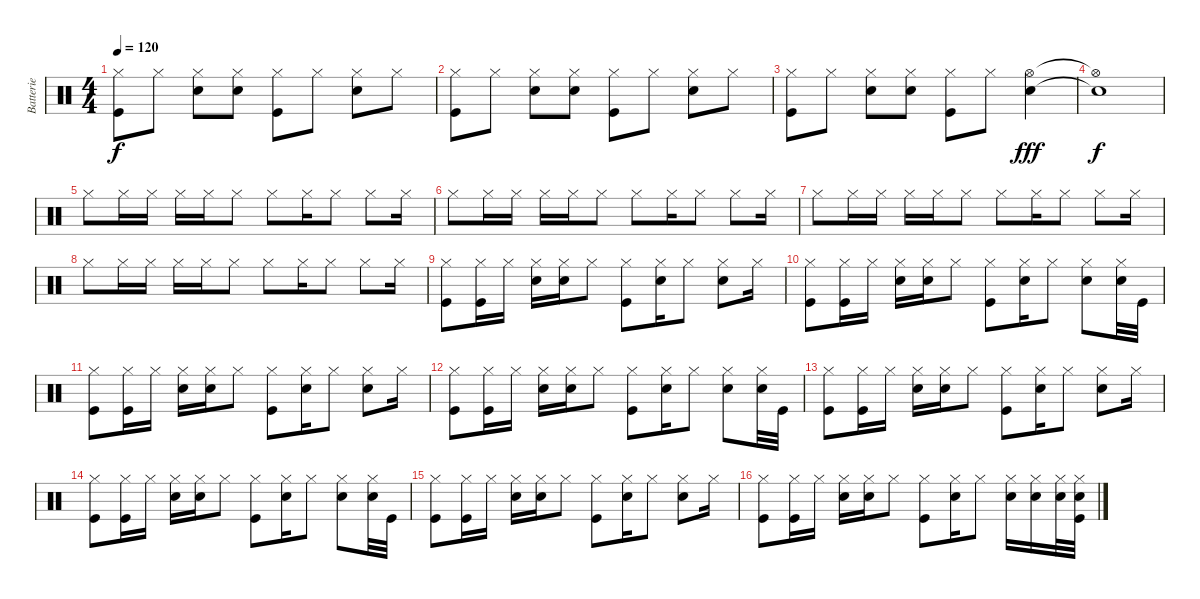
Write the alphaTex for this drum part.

\track ("Batterie" "Batterie") {instrument percussion}
\staff {score}
\articulation defaults
\ts (4 4)
\tempo 120
\clef neutral
\ks c
("Hi-Hat (closed)" "Kick (hit)").8{dy f} "Hi-Hat (closed)".8 ("Hi-Hat (closed)" "Snare (hit) 2").8 ("Hi-Hat (closed)" "Snare (hit) 2").8 ("Hi-Hat (closed)" "Kick (hit)").8 "Hi-Hat (closed)".8 ("Hi-Hat (closed)" "Snare (hit) 2").8 "Hi-Hat (closed)".8 |
("Hi-Hat (closed)" "Kick (hit)").8 "Hi-Hat (closed)".8 ("Hi-Hat (closed)" "Snare (hit) 2").8 ("Hi-Hat (closed)" "Snare (hit) 2").8 ("Hi-Hat (closed)" "Kick (hit)").8 "Hi-Hat (closed)".8 ("Hi-Hat (closed)" "Snare (hit) 2").8 "Hi-Hat (closed)".8 |
("Hi-Hat (closed)" "Kick (hit)").8 "Hi-Hat (closed)".8 ("Hi-Hat (closed)" "Snare (hit) 2").8 ("Hi-Hat (closed)" "Snare (hit) 2").8 ("Hi-Hat (closed)" "Kick (hit)").8 "Hi-Hat (closed)".8 ("Hi-Hat (open)" "Snare (hit) 2").4{dy fff} |
("Hi-Hat (open)"{t} "Snare (hit) 2"{t}).1{dy f} |
"Hi-Hat (closed)".8 "Hi-Hat (closed)".16 "Hi-Hat (closed)".16 "Hi-Hat (closed)".16 "Hi-Hat (closed)".16 "Hi-Hat (closed)".8 "Hi-Hat (closed)".8 "Hi-Hat (closed)".16 "Hi-Hat (closed)".8 "Hi-Hat (closed)".8 "Hi-Hat (closed)".16 |
"Hi-Hat (closed)".8 "Hi-Hat (closed)".16 "Hi-Hat (closed)".16 "Hi-Hat (closed)".16 "Hi-Hat (closed)".16 "Hi-Hat (closed)".8 "Hi-Hat (closed)".8 "Hi-Hat (closed)".16 "Hi-Hat (closed)".8 "Hi-Hat (closed)".8 "Hi-Hat (closed)".16 |
"Hi-Hat (closed)".8 "Hi-Hat (closed)".16 "Hi-Hat (closed)".16 "Hi-Hat (closed)".16 "Hi-Hat (closed)".16 "Hi-Hat (closed)".8 "Hi-Hat (closed)".8 "Hi-Hat (closed)".16 "Hi-Hat (closed)".8 "Hi-Hat (closed)".8 "Hi-Hat (closed)".16 |
"Hi-Hat (closed)".8 "Hi-Hat (closed)".16 "Hi-Hat (closed)".16 "Hi-Hat (closed)".16 "Hi-Hat (closed)".16 "Hi-Hat (closed)".8 "Hi-Hat (closed)".8 "Hi-Hat (closed)".16 "Hi-Hat (closed)".8 "Hi-Hat (closed)".8 "Hi-Hat (closed)".16 |
("Hi-Hat (closed)" "Kick (hit)").8 ("Hi-Hat (closed)" "Kick (hit)").16 "Hi-Hat (closed)".16 ("Hi-Hat (closed)" "Snare (hit) 2").16 ("Hi-Hat (closed)" "Snare (hit) 2").16 "Hi-Hat (closed)".8 ("Hi-Hat (closed)" "Kick (hit)").8 ("Hi-Hat (closed)" "Snare (hit) 2").16 "Hi-Hat (closed)".8 ("Hi-Hat (closed)" "Snare (hit) 2").8 "Hi-Hat (closed)".16 |
("Hi-Hat (closed)" "Kick (hit)").8 ("Hi-Hat (closed)" "Kick (hit)").16 "Hi-Hat (closed)".16 ("Hi-Hat (closed)" "Snare (hit) 2").16 ("Hi-Hat (closed)" "Snare (hit) 2").16 "Hi-Hat (closed)".8 ("Hi-Hat (closed)" "Kick (hit)").8 ("Hi-Hat (closed)" "Snare (hit) 2").16 "Hi-Hat (closed)".8 ("Hi-Hat (closed)" "Snare (hit) 2").8 ("Hi-Hat (closed)" "Snare (hit) 2").32 "Kick (hit)".32 |
("Hi-Hat (closed)" "Kick (hit)").8 ("Hi-Hat (closed)" "Kick (hit)").16 "Hi-Hat (closed)".16 ("Hi-Hat (closed)" "Snare (hit) 2").16 ("Hi-Hat (closed)" "Snare (hit) 2").16 "Hi-Hat (closed)".8 ("Hi-Hat (closed)" "Kick (hit)").8 ("Hi-Hat (closed)" "Snare (hit) 2").16 "Hi-Hat (closed)".8 ("Hi-Hat (closed)" "Snare (hit) 2").8 "Hi-Hat (closed)".16 |
("Hi-Hat (closed)" "Kick (hit)").8 ("Hi-Hat (closed)" "Kick (hit)").16 "Hi-Hat (closed)".16 ("Hi-Hat (closed)" "Snare (hit) 2").16 ("Hi-Hat (closed)" "Snare (hit) 2").16 "Hi-Hat (closed)".8 ("Hi-Hat (closed)" "Kick (hit)").8 ("Hi-Hat (closed)" "Snare (hit) 2").16 "Hi-Hat (closed)".8 ("Hi-Hat (closed)" "Snare (hit) 2").8 ("Hi-Hat (closed)" "Snare (hit) 2").32 "Kick (hit)".32 |
("Hi-Hat (closed)" "Kick (hit)").8 ("Hi-Hat (closed)" "Kick (hit)").16 "Hi-Hat (closed)".16 ("Hi-Hat (closed)" "Snare (hit) 2").16 ("Hi-Hat (closed)" "Snare (hit) 2").16 "Hi-Hat (closed)".8 ("Hi-Hat (closed)" "Kick (hit)").8 ("Hi-Hat (closed)" "Snare (hit) 2").16 "Hi-Hat (closed)".8 ("Hi-Hat (closed)" "Snare (hit) 2").8 "Hi-Hat (closed)".16 |
("Hi-Hat (closed)" "Kick (hit)").8 ("Hi-Hat (closed)" "Kick (hit)").16 "Hi-Hat (closed)".16 ("Hi-Hat (closed)" "Snare (hit) 2").16 ("Hi-Hat (closed)" "Snare (hit) 2").16 "Hi-Hat (closed)".8 ("Hi-Hat (closed)" "Kick (hit)").8 ("Hi-Hat (closed)" "Snare (hit) 2").16 "Hi-Hat (closed)".8 ("Hi-Hat (closed)" "Snare (hit) 2").8 ("Hi-Hat (closed)" "Snare (hit) 2").32 "Kick (hit)".32 |
("Hi-Hat (closed)" "Kick (hit)").8 ("Hi-Hat (closed)" "Kick (hit)").16 "Hi-Hat (closed)".16 ("Hi-Hat (closed)" "Snare (hit) 2").16 ("Hi-Hat (closed)" "Snare (hit) 2").16 "Hi-Hat (closed)".8 ("Hi-Hat (closed)" "Kick (hit)").8 ("Hi-Hat (closed)" "Snare (hit) 2").16 "Hi-Hat (closed)".8 ("Hi-Hat (closed)" "Snare (hit) 2").8 "Hi-Hat (closed)".16 |
("Hi-Hat (closed)" "Kick (hit)").8 ("Hi-Hat (closed)" "Kick (hit)").16 "Hi-Hat (closed)".16 ("Hi-Hat (closed)" "Snare (hit) 2").16 ("Hi-Hat (closed)" "Snare (hit) 2").16 "Hi-Hat (closed)".8 ("Hi-Hat (closed)" "Kick (hit)").8 ("Hi-Hat (closed)" "Snare (hit) 2").16 "Hi-Hat (closed)".8 ("Hi-Hat (closed)" "Snare (hit) 2").16 ("Snare (hit) 2" "Hi-Hat (closed)").16 ("Hi-Hat (closed)" "Snare (hit) 2").32 ("Kick (hit)" "Snare (hit) 2" "Hi-Hat (closed)").32
